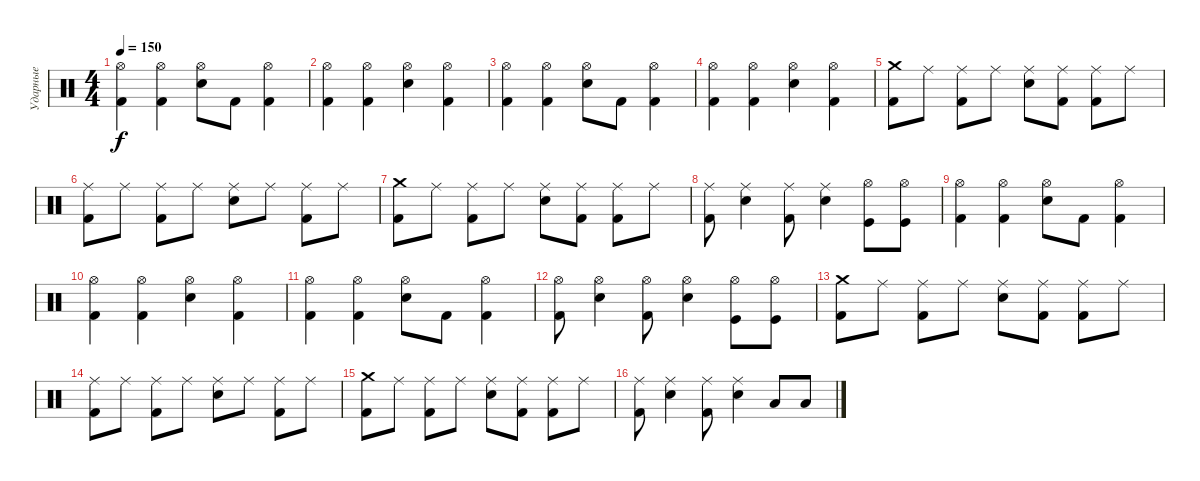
\track ("Ударные" "Ударные") {instrument percussion}
\staff {score}
\articulation defaults
\ts (4 4)
\tempo 150
\clef neutral
\ks c
("Hi-Hat (open)" "Kick (hit) 2").4{dy f} ("Hi-Hat (open)" "Kick (hit) 2").4 ("Hi-Hat (open)" "Electric Snare (hit)").8 "Kick (hit) 2".8 ("Hi-Hat (open)" "Kick (hit) 2").4 |
("Hi-Hat (open)" "Kick (hit) 2").4 ("Hi-Hat (open)" "Kick (hit) 2").4 ("Hi-Hat (open)" "Electric Snare (hit)").4 ("Hi-Hat (open)" "Kick (hit) 2").4 |
("Hi-Hat (open)" "Kick (hit) 2").4 ("Hi-Hat (open)" "Kick (hit) 2").4 ("Hi-Hat (open)" "Electric Snare (hit)").8 "Kick (hit) 2".8 ("Hi-Hat (open)" "Kick (hit) 2").4 |
("Hi-Hat (open)" "Kick (hit) 2").4 ("Hi-Hat (open)" "Kick (hit) 2").4 ("Hi-Hat (open)" "Electric Snare (hit)").4 ("Hi-Hat (open)" "Kick (hit) 2").4 |
("Crash medium (hit)" "Kick (hit) 2").8 "Ride (middle)".8 ("Ride (middle)" "Kick (hit) 2").8 "Ride (middle)".8 ("Ride (middle)" "Electric Snare (hit)").8 ("Ride (middle)" "Kick (hit) 2").8 ("Ride (middle)" "Kick (hit) 2").8 "Ride (middle)".8 |
("Ride (middle)" "Kick (hit) 2").8 "Ride (middle)".8 ("Ride (middle)" "Kick (hit) 2").8 "Ride (middle)".8 ("Ride (middle)" "Electric Snare (hit)").8 "Ride (middle)".8 ("Ride (middle)" "Kick (hit) 2").8 "Ride (middle)".8 |
("Crash medium (hit)" "Kick (hit) 2").8 "Ride (middle)".8 ("Ride (middle)" "Kick (hit) 2").8 "Ride (middle)".8 ("Ride (middle)" "Electric Snare (hit)").8 ("Ride (middle)" "Kick (hit) 2").8 ("Ride (middle)" "Kick (hit) 2").8 "Ride (middle)".8 |
("Ride (middle)" "Kick (hit) 2").8 ("Ride (middle)" "Electric Snare (hit)").4 ("Ride (middle)" "Kick (hit) 2").8 ("Ride (middle)" "Electric Snare (hit)").4 ("Hi-Hat (open)" "Kick (hit)").8 ("Hi-Hat (open)" "Kick (hit)").8 |
("Hi-Hat (open)" "Kick (hit) 2").4 ("Hi-Hat (open)" "Kick (hit) 2").4 ("Hi-Hat (open)" "Electric Snare (hit)").8 "Kick (hit) 2".8 ("Hi-Hat (open)" "Kick (hit) 2").4 |
("Hi-Hat (open)" "Kick (hit) 2").4 ("Hi-Hat (open)" "Kick (hit) 2").4 ("Hi-Hat (open)" "Electric Snare (hit)").4 ("Hi-Hat (open)" "Kick (hit) 2").4 |
("Hi-Hat (open)" "Kick (hit) 2").4 ("Hi-Hat (open)" "Kick (hit) 2").4 ("Hi-Hat (open)" "Electric Snare (hit)").8 "Kick (hit) 2".8 ("Hi-Hat (open)" "Kick (hit) 2").4 |
("Hi-Hat (open)" "Kick (hit) 2").8 ("Hi-Hat (open)" "Electric Snare (hit)").4 ("Hi-Hat (open)" "Kick (hit) 2").8 ("Hi-Hat (open)" "Electric Snare (hit)").4 ("Hi-Hat (open)" "Kick (hit)").8 ("Hi-Hat (open)" "Kick (hit)").8 |
("Crash medium (hit)" "Kick (hit) 2").8 "Ride (middle)".8 ("Ride (middle)" "Kick (hit) 2").8 "Ride (middle)".8 ("Ride (middle)" "Electric Snare (hit)").8 ("Ride (middle)" "Kick (hit) 2").8 ("Ride (middle)" "Kick (hit) 2").8 "Ride (middle)".8 |
("Ride (middle)" "Kick (hit) 2").8 "Ride (middle)".8 ("Ride (middle)" "Kick (hit) 2").8 "Ride (middle)".8 ("Ride (middle)" "Electric Snare (hit)").8 "Ride (middle)".8 ("Ride (middle)" "Kick (hit) 2").8 "Ride (middle)".8 |
("Crash medium (hit)" "Kick (hit) 2").8 "Ride (middle)".8 ("Ride (middle)" "Kick (hit) 2").8 "Ride (middle)".8 ("Ride (middle)" "Electric Snare (hit)").8 ("Ride (middle)" "Kick (hit) 2").8 ("Ride (middle)" "Kick (hit) 2").8 "Ride (middle)".8 |
("Ride (middle)" "Kick (hit) 2").8 ("Ride (middle)" "Electric Snare (hit)").4 ("Ride (middle)" "Kick (hit) 2").8 ("Ride (middle)" "Electric Snare (hit)").4 "Low Floor Tom (hit)".8 "Low Floor Tom (hit)".8
